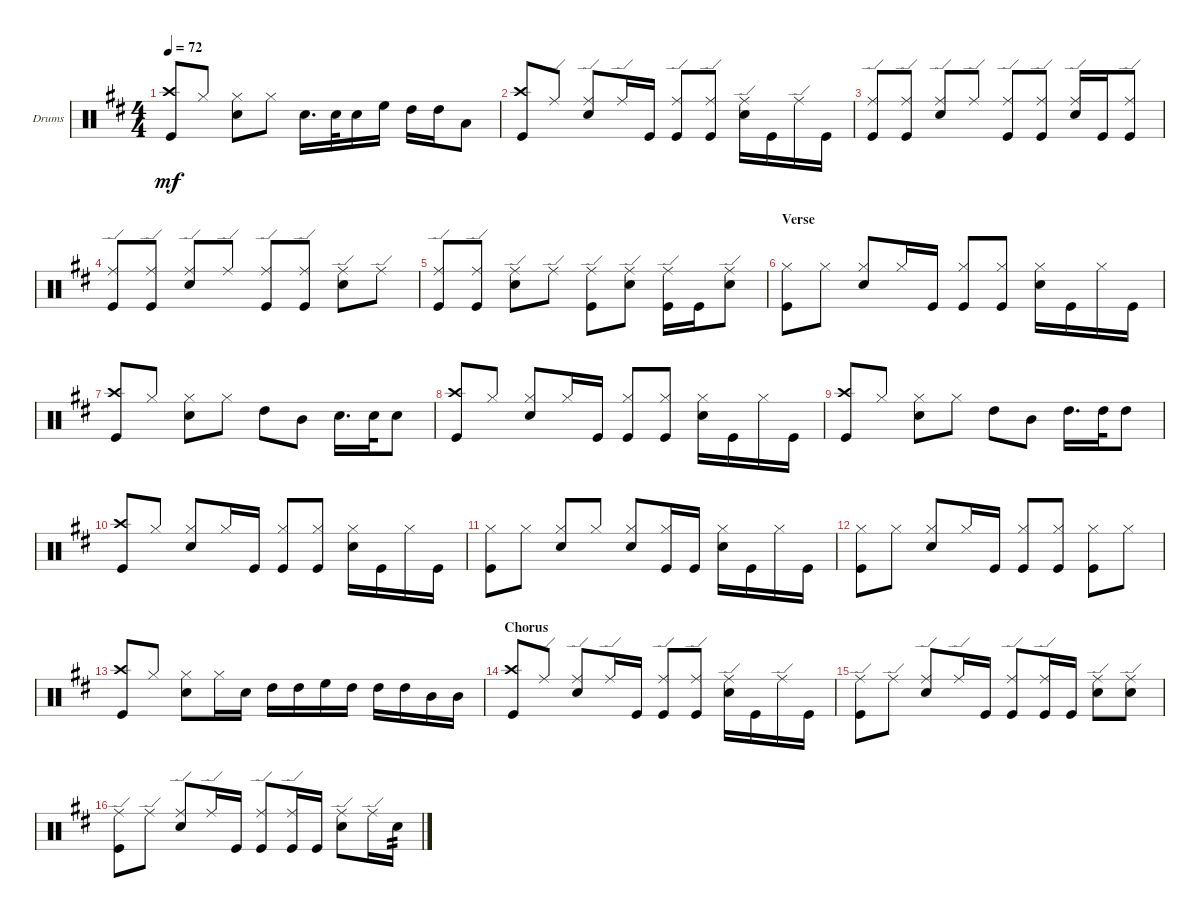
\defaultSystemsLayout 4
\bracketExtendMode groupsimilarinstruments
\firstSystemTrackNameOrientation horizontal
\otherSystemsTrackNameOrientation horizontal
\track ("PETER CRISS" "Drums") {instrument percussion}
\staff {score}
\articulation defaults
\ts (4 4)
\tempo 72
\clef neutral
\scale
0.333333
\ks d
("Crash high (hit)" "Kick (hit)").8{dy mf beam invert} "Hi-Hat (closed)".8 ("Snare (hit) 2" "Hi-Hat (closed)").8 "Hi-Hat (closed)".8 "Snare (hit) 2".16{d} "Snare (hit) 2".32 "Snare (hit) 2".16 "High Floor Tom (hit)".16 "High Tom (hit)".16 "High Tom (hit)".16 "Low Tom (hit)".8 |
\scale
0.333333 ("Crash high (hit)" "Kick (hit)").8{beam invert} "Ride (edge)".8 ("Ride (edge)" "Snare (hit) 2").8 "Ride (edge)".16 "Kick (hit)".16 ("Ride (edge)" "Kick (hit)").8{beam invert} ("Kick (hit)" "Ride (edge)").8 ("Snare (hit) 2" "Ride (edge)").16 "Kick (hit)".16 "Ride (edge)".16 "Kick (hit)".16 |
\scale
0.333333 ("Ride (edge)" "Kick (hit)").8{beam invert} ("Kick (hit)" "Ride (edge)").8 ("Ride (edge)" "Snare (hit) 2").8 "Ride (edge)".8 ("Ride (edge)" "Kick (hit)").8{beam invert} ("Kick (hit)" "Ride (edge)").8 ("Snare (hit) 2" "Ride (edge)").16{beam invert} "Kick (hit)".16 ("Kick (hit)" "Ride (edge)").8 |
\scale
0.333333 ("Ride (edge)" "Kick (hit)").8{beam invert} ("Kick (hit)" "Ride (edge)").8 ("Ride (edge)" "Snare (hit) 2").8 "Ride (edge)".8 ("Ride (edge)" "Kick (hit)").8{beam invert} ("Kick (hit)" "Ride (edge)").8 ("Ride (edge)" "Snare (hit) 2").8 "Ride (edge)".8 |
\scale
0.333333 ("Ride (edge)" "Kick (hit)").8{beam invert} ("Kick (hit)" "Ride (edge)").8 ("Ride (edge)" "Snare (hit) 2").8 "Ride (edge)".8 ("Ride (edge)" "Kick (hit)").8 ("Ride (edge)" "Snare (hit) 2").8 ("Ride (edge)" "Kick (hit)").16 "Kick (hit)".16 ("Ride (edge)" "Snare (hit) 2").8 |
\section ("" "Verse")
\scale
0.333333 ("Kick (hit)" "Hi-Hat (closed)").8 "Hi-Hat (closed)".8 ("Snare (hit) 2" "Hi-Hat (closed)").8 "Hi-Hat (closed)".16 "Kick (hit)".16 ("Kick (hit)" "Hi-Hat (closed)").8{beam invert} ("Kick (hit)" "Hi-Hat (closed)").8 ("Snare (hit) 2" "Hi-Hat (closed)").16 "Kick (hit)".16 "Hi-Hat (closed)".16 "Kick (hit)".16 |
\scale
0.333333 ("Crash high (hit)" "Kick (hit)").8{beam invert} "Hi-Hat (closed)".8 ("Snare (hit) 2" "Hi-Hat (closed)").8 "Hi-Hat (closed)".8 "High Tom (hit)".8 "Mid Tom (hit)".8 "Snare (hit) 2".16{d} "Snare (hit) 2".32 "Snare (hit) 2".8 |
\scale
0.333333 ("Kick (hit)" "Crash high (hit)").8{beam invert} "Hi-Hat (closed)".8 ("Snare (hit) 2" "Hi-Hat (closed)").8 "Hi-Hat (closed)".16 "Kick (hit)".16 ("Kick (hit)" "Hi-Hat (closed)").8{beam invert} ("Kick (hit)" "Hi-Hat (closed)").8 ("Snare (hit) 2" "Hi-Hat (closed)").16 "Kick (hit)".16 "Hi-Hat (closed)".16 "Kick (hit)".16 |
\scale
0.333333 ("Crash high (hit)" "Kick (hit)").8{beam invert} "Hi-Hat (closed)".8 ("Snare (hit) 2" "Hi-Hat (closed)").8 "Hi-Hat (closed)".8 "High Tom (hit)".8 "Mid Tom (hit)".8 "High Tom (hit)".16{d} "High Tom (hit)".32 "High Tom (hit)".8 |
\scale
0.333333 ("Kick (hit)" "Crash high (hit)").8{beam invert} "Hi-Hat (closed)".8 ("Snare (hit) 2" "Hi-Hat (closed)").8 "Hi-Hat (closed)".16 "Kick (hit)".16 ("Kick (hit)" "Hi-Hat (closed)").8{beam invert} ("Kick (hit)" "Hi-Hat (closed)").8 ("Snare (hit) 2" "Hi-Hat (closed)").16 "Kick (hit)".16 "Hi-Hat (closed)".16 "Kick (hit)".16 |
\scale
0.333333 ("Hi-Hat (closed)" "Kick (hit)").8 "Hi-Hat (closed)".8 ("Hi-Hat (closed)" "Snare (hit) 2").8 "Hi-Hat (closed)".8 ("Snare (hit) 2" "Hi-Hat (closed)").8{beam invert} ("Kick (hit)" "Hi-Hat (closed)").16 "Kick (hit)".16 ("Snare (hit) 2" "Hi-Hat (closed)").16 "Kick (hit)".16 "Hi-Hat (closed)".16 "Kick (hit)".16 |
\scale
0.333333 ("Kick (hit)" "Hi-Hat (closed)").8 "Hi-Hat (closed)".8 ("Snare (hit) 2" "Hi-Hat (closed)").8 "Hi-Hat (closed)".16 "Kick (hit)".16 ("Kick (hit)" "Hi-Hat (closed)").8{beam invert} ("Kick (hit)" "Hi-Hat (closed)").8 ("Kick (hit)" "Hi-Hat (closed)").8 "Hi-Hat (closed)".8 |
\scale
0.333333 ("Kick (hit)" "Crash high (hit)").8{beam invert} "Hi-Hat (closed)".8 ("Snare (hit) 2" "Hi-Hat (closed)").8 "Hi-Hat (closed)".16 "Snare (hit) 2".16 "High Tom (hit)".16 "High Tom (hit)".16 "High Floor Tom (hit)".16 "High Tom (hit)".16 "High Tom (hit)".16 "High Tom (hit)".16 "Mid Tom (hit)".16 "Mid Tom (hit)".16 |
\section ("" "Chorus")
\scale
0.333333 ("Crash high (hit)" "Kick (hit)").8{beam invert} "Ride (edge)".8 ("Ride (edge)" "Snare (hit) 2").8 "Ride (edge)".16 "Kick (hit)".16 ("Ride (edge)" "Kick (hit)").8{beam invert} ("Kick (hit)" "Ride (edge)").8 ("Snare (hit) 2" "Ride (edge)").16 "Kick (hit)".16 "Ride (edge)".16 "Kick (hit)".16 |
\scale
0.333333 ("Ride (edge)" "Kick (hit)").8 "Ride (edge)".8 ("Snare (hit) 2" "Ride (edge)").8 "Ride (edge)".16 "Kick (hit)".16 ("Ride (edge)" "Kick (hit)").8{beam invert} ("Ride (edge)" "Kick (hit)").16 "Kick (hit)".16 ("Snare (hit) 2" "Ride (edge)").8 ("Ride (edge)" "Snare (hit) 2").8 |
\scale
0.333333 ("Ride (edge)" "Kick (hit)").8 "Ride (edge)".8 ("Snare (hit) 2" "Ride (edge)").8 "Ride (edge)".16 "Kick (hit)".16 ("Ride (edge)" "Kick (hit)").8{beam invert} ("Ride (edge)" "Kick (hit)").16 "Kick (hit)".16 ("Snare (hit) 2" "Ride (edge)").8 "Ride (edge)".16 "Snare (hit) 2".16{tp 2}
